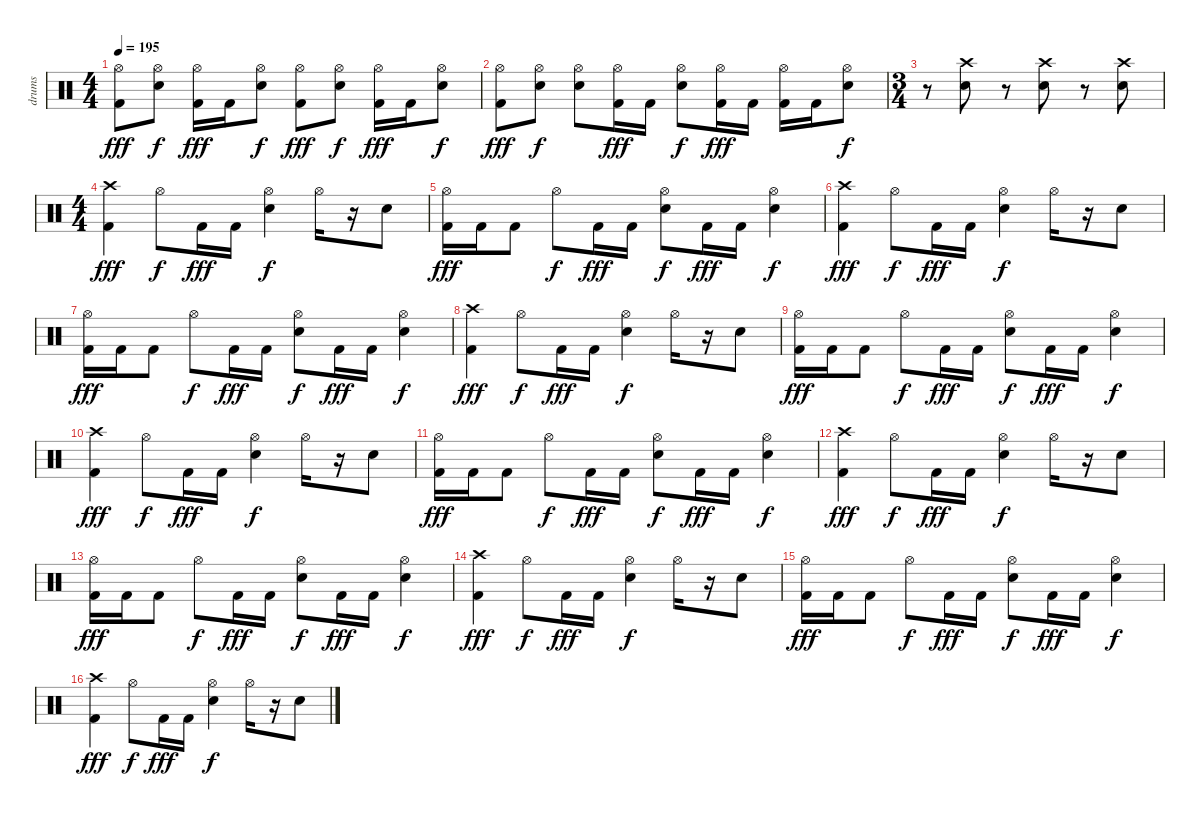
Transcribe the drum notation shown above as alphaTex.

\track ("drums" "drums") {instrument percussion}
\staff {score}
\articulation defaults
\ts (4 4)
\tempo 195
\clef neutral
\ks c
("Hi-Hat (open)" "Kick (hit) 2").8{dy fff} ("Hi-Hat (open)" "Snare (hit) 2").8{dy f} ("Hi-Hat (open)" "Kick (hit) 2").16{dy fff} "Kick (hit) 2".16 ("Hi-Hat (open)" "Snare (hit) 2").8{dy f} ("Hi-Hat (open)" "Kick (hit) 2").8{dy fff} ("Hi-Hat (open)" "Snare (hit) 2").8{dy f} ("Hi-Hat (open)" "Kick (hit) 2").16{dy fff} "Kick (hit) 2".16 ("Hi-Hat (open)" "Snare (hit) 2").8{dy f} |
("Hi-Hat (open)" "Kick (hit) 2").8{dy fff} ("Hi-Hat (open)" "Snare (hit) 2").8{dy f} ("Hi-Hat (open)" "Snare (hit) 2").8 ("Hi-Hat (open)" "Kick (hit) 2").16{dy fff} "Kick (hit) 2".16 ("Hi-Hat (open)" "Snare (hit) 2").8{dy f} ("Hi-Hat (open)" "Kick (hit) 2").16{dy fff} "Kick (hit) 2".16 ("Hi-Hat (open)" "Kick (hit) 2").16 "Kick (hit) 2".16 ("Hi-Hat (open)" "Snare (hit) 2").8{dy f} |
\ts (3 4)
r.8 ("Crash high (hit)" "Snare (hit) 2").8 r.8 ("Crash high (hit)" "Snare (hit) 2").8 r.8 ("Crash high (hit)" "Snare (hit) 2").8 |
\ts (4 4)
("Crash high (hit)" "Kick (hit) 2").4{dy fff} "Hi-Hat (open)".8{dy f} "Kick (hit) 2".16{dy fff} "Kick (hit) 2".16 ("Hi-Hat (open)" "Snare (hit) 2").4{dy f} "Hi-Hat (open)".16 r.16 "Snare (hit) 2".8 |
("Hi-Hat (open)" "Kick (hit) 2").16{dy fff} "Kick (hit) 2".16 "Kick (hit) 2".8 "Hi-Hat (open)".8{dy f} "Kick (hit) 2".16{dy fff} "Kick (hit) 2".16 ("Hi-Hat (open)" "Snare (hit) 2").8{dy f} "Kick (hit) 2".16{dy fff} "Kick (hit) 2".16 ("Hi-Hat (open)" "Snare (hit) 2").4{dy f} |
("Crash high (hit)" "Kick (hit) 2").4{dy fff} "Hi-Hat (open)".8{dy f} "Kick (hit) 2".16{dy fff} "Kick (hit) 2".16 ("Hi-Hat (open)" "Snare (hit) 2").4{dy f} "Hi-Hat (open)".16 r.16 "Snare (hit) 2".8 |
("Hi-Hat (open)" "Kick (hit) 2").16{dy fff} "Kick (hit) 2".16 "Kick (hit) 2".8 "Hi-Hat (open)".8{dy f} "Kick (hit) 2".16{dy fff} "Kick (hit) 2".16 ("Hi-Hat (open)" "Snare (hit) 2").8{dy f} "Kick (hit) 2".16{dy fff} "Kick (hit) 2".16 ("Hi-Hat (open)" "Snare (hit) 2").4{dy f} |
("Crash high (hit)" "Kick (hit) 2").4{dy fff} "Hi-Hat (open)".8{dy f} "Kick (hit) 2".16{dy fff} "Kick (hit) 2".16 ("Hi-Hat (open)" "Snare (hit) 2").4{dy f} "Hi-Hat (open)".16 r.16 "Snare (hit) 2".8 |
("Hi-Hat (open)" "Kick (hit) 2").16{dy fff} "Kick (hit) 2".16 "Kick (hit) 2".8 "Hi-Hat (open)".8{dy f} "Kick (hit) 2".16{dy fff} "Kick (hit) 2".16 ("Hi-Hat (open)" "Snare (hit) 2").8{dy f} "Kick (hit) 2".16{dy fff} "Kick (hit) 2".16 ("Hi-Hat (open)" "Snare (hit) 2").4{dy f} |
("Crash high (hit)" "Kick (hit) 2").4{dy fff} "Hi-Hat (open)".8{dy f} "Kick (hit) 2".16{dy fff} "Kick (hit) 2".16 ("Hi-Hat (open)" "Snare (hit) 2").4{dy f} "Hi-Hat (open)".16 r.16 "Snare (hit) 2".8 |
("Hi-Hat (open)" "Kick (hit) 2").16{dy fff} "Kick (hit) 2".16 "Kick (hit) 2".8 "Hi-Hat (open)".8{dy f} "Kick (hit) 2".16{dy fff} "Kick (hit) 2".16 ("Hi-Hat (open)" "Snare (hit) 2").8{dy f} "Kick (hit) 2".16{dy fff} "Kick (hit) 2".16 ("Hi-Hat (open)" "Snare (hit) 2").4{dy f} |
("Crash high (hit)" "Kick (hit) 2").4{dy fff} "Hi-Hat (open)".8{dy f} "Kick (hit) 2".16{dy fff} "Kick (hit) 2".16 ("Hi-Hat (open)" "Snare (hit) 2").4{dy f} "Hi-Hat (open)".16 r.16 "Snare (hit) 2".8 |
("Hi-Hat (open)" "Kick (hit) 2").16{dy fff} "Kick (hit) 2".16 "Kick (hit) 2".8 "Hi-Hat (open)".8{dy f} "Kick (hit) 2".16{dy fff} "Kick (hit) 2".16 ("Hi-Hat (open)" "Snare (hit) 2").8{dy f} "Kick (hit) 2".16{dy fff} "Kick (hit) 2".16 ("Hi-Hat (open)" "Snare (hit) 2").4{dy f} |
("Crash high (hit)" "Kick (hit) 2").4{dy fff} "Hi-Hat (open)".8{dy f} "Kick (hit) 2".16{dy fff} "Kick (hit) 2".16 ("Hi-Hat (open)" "Snare (hit) 2").4{dy f} "Hi-Hat (open)".16 r.16 "Snare (hit) 2".8 |
("Hi-Hat (open)" "Kick (hit) 2").16{dy fff} "Kick (hit) 2".16 "Kick (hit) 2".8 "Hi-Hat (open)".8{dy f} "Kick (hit) 2".16{dy fff} "Kick (hit) 2".16 ("Hi-Hat (open)" "Snare (hit) 2").8{dy f} "Kick (hit) 2".16{dy fff} "Kick (hit) 2".16 ("Hi-Hat (open)" "Snare (hit) 2").4{dy f} |
("Crash high (hit)" "Kick (hit) 2").4{dy fff} "Hi-Hat (open)".8{dy f} "Kick (hit) 2".16{dy fff} "Kick (hit) 2".16 ("Hi-Hat (open)" "Snare (hit) 2").4{dy f} "Hi-Hat (open)".16 r.16 "Snare (hit) 2".8
